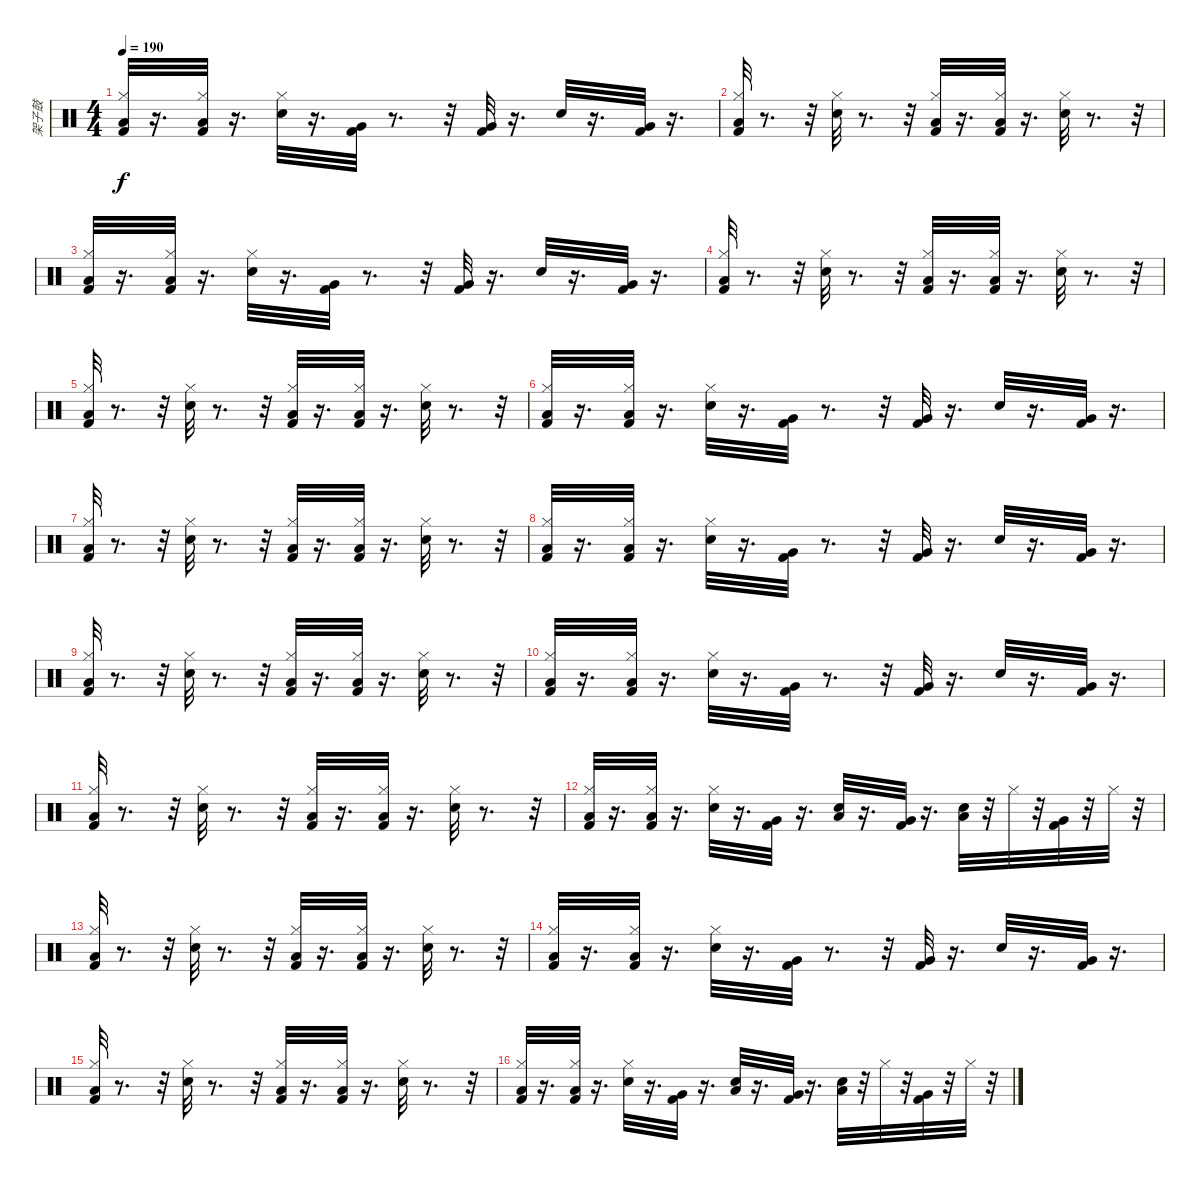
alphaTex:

\track ("架子鼓" "架子鼓") {instrument percussion}
\staff {score}
\articulation defaults
\ts (4 4)
\tempo 190
\clef neutral
\ks c
("Kick (hit) 2" "Hi-Hat (closed)" "Low Floor Tom (hit)").32{dy f} r.16{d} ("Kick (hit) 2" "Hi-Hat (closed)" "Low Floor Tom (hit)").32 r.16{d} ("Hi-Hat (closed)" "Electric Snare (hit)").32 r.16{d} ("Kick (hit) 2" "Very Low Tom (hit)").32 r.8{d} r.32 ("Kick (hit) 2" "Very Low Tom (hit)").32 r.16{d} "Snare (hit) 2".32 r.16{d} ("Kick (hit) 2" "Very Low Tom (hit)").32 r.16{d} |
("Kick (hit) 2" "Hi-Hat (closed)" "Low Floor Tom (hit)").32 r.8{d} r.32 ("Hi-Hat (closed)" "Electric Snare (hit)").32 r.8{d} r.32 ("Kick (hit) 2" "Hi-Hat (closed)" "Low Floor Tom (hit)").32 r.16{d} ("Kick (hit) 2" "Hi-Hat (closed)" "Low Floor Tom (hit)").32 r.16{d} ("Hi-Hat (closed)" "Electric Snare (hit)").32 r.8{d} r.32 |
("Kick (hit) 2" "Hi-Hat (closed)" "Low Floor Tom (hit)").32 r.16{d} ("Kick (hit) 2" "Hi-Hat (closed)" "Low Floor Tom (hit)").32 r.16{d} ("Hi-Hat (closed)" "Electric Snare (hit)").32 r.16{d} ("Kick (hit) 2" "Very Low Tom (hit)").32 r.8{d} r.32 ("Kick (hit) 2" "Very Low Tom (hit)").32 r.16{d} "Snare (hit) 2".32 r.16{d} ("Kick (hit) 2" "Very Low Tom (hit)").32 r.16{d} |
("Kick (hit) 2" "Hi-Hat (closed)" "Low Floor Tom (hit)").32 r.8{d} r.32 ("Hi-Hat (closed)" "Electric Snare (hit)").32 r.8{d} r.32 ("Kick (hit) 2" "Hi-Hat (closed)" "Low Floor Tom (hit)").32 r.16{d} ("Kick (hit) 2" "Hi-Hat (closed)" "Low Floor Tom (hit)").32 r.16{d} ("Hi-Hat (closed)" "Electric Snare (hit)").32 r.8{d} r.32 |
("Kick (hit) 2" "Hi-Hat (closed)" "Low Floor Tom (hit)").32 r.8{d} r.32 ("Hi-Hat (closed)" "Electric Snare (hit)").32 r.8{d} r.32 ("Kick (hit) 2" "Hi-Hat (closed)" "Low Floor Tom (hit)").32 r.16{d} ("Kick (hit) 2" "Hi-Hat (closed)" "Low Floor Tom (hit)").32 r.16{d} ("Hi-Hat (closed)" "Electric Snare (hit)").32 r.8{d} r.32 |
("Kick (hit) 2" "Hi-Hat (closed)" "Low Floor Tom (hit)").32 r.16{d} ("Kick (hit) 2" "Hi-Hat (closed)" "Low Floor Tom (hit)").32 r.16{d} ("Hi-Hat (closed)" "Electric Snare (hit)").32 r.16{d} ("Kick (hit) 2" "Very Low Tom (hit)").32 r.8{d} r.32 ("Kick (hit) 2" "Very Low Tom (hit)").32 r.16{d} "Snare (hit) 2".32 r.16{d} ("Kick (hit) 2" "Very Low Tom (hit)").32 r.16{d} |
("Kick (hit) 2" "Hi-Hat (closed)" "Low Floor Tom (hit)").32 r.8{d} r.32 ("Hi-Hat (closed)" "Electric Snare (hit)").32 r.8{d} r.32 ("Kick (hit) 2" "Hi-Hat (closed)" "Low Floor Tom (hit)").32 r.16{d} ("Kick (hit) 2" "Hi-Hat (closed)" "Low Floor Tom (hit)").32 r.16{d} ("Hi-Hat (closed)" "Electric Snare (hit)").32 r.8{d} r.32 |
("Kick (hit) 2" "Hi-Hat (closed)" "Low Floor Tom (hit)").32 r.16{d} ("Kick (hit) 2" "Hi-Hat (closed)" "Low Floor Tom (hit)").32 r.16{d} ("Hi-Hat (closed)" "Electric Snare (hit)").32 r.16{d} ("Kick (hit) 2" "Very Low Tom (hit)").32 r.8{d} r.32 ("Kick (hit) 2" "Very Low Tom (hit)").32 r.16{d} "Snare (hit) 2".32 r.16{d} ("Kick (hit) 2" "Very Low Tom (hit)").32 r.16{d} |
("Kick (hit) 2" "Hi-Hat (closed)" "Low Floor Tom (hit)").32 r.8{d} r.32 ("Hi-Hat (closed)" "Electric Snare (hit)").32 r.8{d} r.32 ("Kick (hit) 2" "Hi-Hat (closed)" "Low Floor Tom (hit)").32 r.16{d} ("Kick (hit) 2" "Hi-Hat (closed)" "Low Floor Tom (hit)").32 r.16{d} ("Hi-Hat (closed)" "Electric Snare (hit)").32 r.8{d} r.32 |
("Kick (hit) 2" "Hi-Hat (closed)" "Low Floor Tom (hit)").32 r.16{d} ("Kick (hit) 2" "Hi-Hat (closed)" "Low Floor Tom (hit)").32 r.16{d} ("Hi-Hat (closed)" "Electric Snare (hit)").32 r.16{d} ("Kick (hit) 2" "Very Low Tom (hit)").32 r.8{d} r.32 ("Kick (hit) 2" "Very Low Tom (hit)").32 r.16{d} "Snare (hit) 2".32 r.16{d} ("Kick (hit) 2" "Very Low Tom (hit)").32 r.16{d} |
("Kick (hit) 2" "Hi-Hat (closed)" "Low Floor Tom (hit)").32 r.8{d} r.32 ("Hi-Hat (closed)" "Electric Snare (hit)").32 r.8{d} r.32 ("Kick (hit) 2" "Hi-Hat (closed)" "Low Floor Tom (hit)").32 r.16{d} ("Kick (hit) 2" "Hi-Hat (closed)" "Low Floor Tom (hit)").32 r.16{d} ("Hi-Hat (closed)" "Electric Snare (hit)").32 r.8{d} r.32 |
("Kick (hit) 2" "Hi-Hat (closed)" "Low Floor Tom (hit)").32 r.16{d} ("Kick (hit) 2" "Hi-Hat (closed)" "Low Floor Tom (hit)").32 r.16{d} ("Hi-Hat (closed)" "Electric Snare (hit)").32 r.16{d} ("Kick (hit) 2" "Very Low Tom (hit)").32 r.16{d} ("Snare (hit) 2" "Low Floor Tom (hit)").32 r.16{d} ("Kick (hit) 2" "Very Low Tom (hit)").32 r.16{d} ("Low Floor Tom (hit)" "Snare (hit) 2").32 r.32 "Hi-Hat (closed)".32 r.32 ("Kick (hit) 2" "Very Low Tom (hit)").32 r.32 "Hi-Hat (closed)".32 r.32 |
("Kick (hit) 2" "Hi-Hat (closed)" "Low Floor Tom (hit)").32 r.8{d} r.32 ("Hi-Hat (closed)" "Electric Snare (hit)").32 r.8{d} r.32 ("Kick (hit) 2" "Hi-Hat (closed)" "Low Floor Tom (hit)").32 r.16{d} ("Kick (hit) 2" "Hi-Hat (closed)" "Low Floor Tom (hit)").32 r.16{d} ("Hi-Hat (closed)" "Electric Snare (hit)").32 r.8{d} r.32 |
("Kick (hit) 2" "Hi-Hat (closed)" "Low Floor Tom (hit)").32 r.16{d} ("Kick (hit) 2" "Hi-Hat (closed)" "Low Floor Tom (hit)").32 r.16{d} ("Hi-Hat (closed)" "Electric Snare (hit)").32 r.16{d} ("Kick (hit) 2" "Very Low Tom (hit)").32 r.8{d} r.32 ("Kick (hit) 2" "Very Low Tom (hit)").32 r.16{d} "Snare (hit) 2".32 r.16{d} ("Kick (hit) 2" "Very Low Tom (hit)").32 r.16{d} |
("Kick (hit) 2" "Hi-Hat (closed)" "Low Floor Tom (hit)").32 r.8{d} r.32 ("Hi-Hat (closed)" "Electric Snare (hit)").32 r.8{d} r.32 ("Kick (hit) 2" "Hi-Hat (closed)" "Low Floor Tom (hit)").32 r.16{d} ("Kick (hit) 2" "Hi-Hat (closed)" "Low Floor Tom (hit)").32 r.16{d} ("Hi-Hat (closed)" "Electric Snare (hit)").32 r.8{d} r.32 |
("Kick (hit) 2" "Hi-Hat (closed)" "Low Floor Tom (hit)").32 r.16{d} ("Kick (hit) 2" "Hi-Hat (closed)" "Low Floor Tom (hit)").32 r.16{d} ("Hi-Hat (closed)" "Electric Snare (hit)").32 r.16{d} ("Kick (hit) 2" "Very Low Tom (hit)").32 r.16{d} ("Snare (hit) 2" "Low Floor Tom (hit)").32 r.16{d} ("Kick (hit) 2" "Very Low Tom (hit)").32 r.16{d} ("Low Floor Tom (hit)" "Snare (hit) 2").32 r.32 "Hi-Hat (closed)".32 r.32 ("Kick (hit) 2" "Very Low Tom (hit)").32 r.32 "Hi-Hat (closed)".32 r.32
